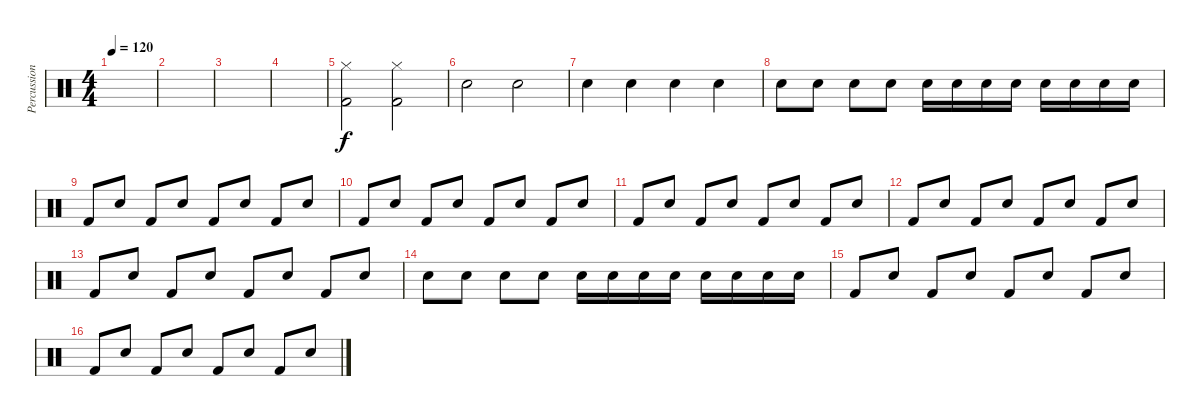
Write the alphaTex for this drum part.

\track ("Percussions" "Percussion") {instrument percussion}
\staff {score}
\articulation defaults
\ts (4 4)
\tempo 120
\clef neutral
\ks c
|
|
|
|
("Kick (hit) 2" "Hi-Hat (closed)").2 ("Kick (hit) 2" "Hi-Hat (closed)").2 |
"Snare (hit) 2".2 "Snare (hit) 2".2 |
"Snare (hit) 2".4 "Snare (hit) 2".4 "Snare (hit) 2".4 "Snare (hit) 2".4 |
"Snare (hit) 2".8 "Snare (hit) 2".8 "Snare (hit) 2".8 "Snare (hit) 2".8 "Snare (hit) 2".16 "Snare (hit) 2".16 "Snare (hit) 2".16 "Snare (hit) 2".16 "Snare (hit) 2".16 "Snare (hit) 2".16 "Snare (hit) 2".16 "Snare (hit) 2".16 |
"Kick (hit) 2".8 "Snare (hit) 2".8 "Kick (hit) 2".8 "Snare (hit) 2".8 "Kick (hit) 2".8 "Snare (hit) 2".8 "Kick (hit) 2".8 "Snare (hit) 2".8 |
"Kick (hit) 2".8 "Snare (hit) 2".8 "Kick (hit) 2".8 "Snare (hit) 2".8 "Kick (hit) 2".8 "Snare (hit) 2".8 "Kick (hit) 2".8 "Snare (hit) 2".8 |
"Kick (hit) 2".8 "Snare (hit) 2".8 "Kick (hit) 2".8 "Snare (hit) 2".8 "Kick (hit) 2".8 "Snare (hit) 2".8 "Kick (hit) 2".8 "Snare (hit) 2".8 |
"Kick (hit) 2".8 "Snare (hit) 2".8 "Kick (hit) 2".8 "Snare (hit) 2".8 "Kick (hit) 2".8 "Snare (hit) 2".8 "Kick (hit) 2".8 "Snare (hit) 2".8 |
"Kick (hit) 2".8 "Snare (hit) 2".8 "Kick (hit) 2".8 "Snare (hit) 2".8 "Kick (hit) 2".8 "Snare (hit) 2".8 "Kick (hit) 2".8 "Snare (hit) 2".8 |
"Snare (hit) 2".8 "Snare (hit) 2".8 "Snare (hit) 2".8 "Snare (hit) 2".8 "Snare (hit) 2".16 "Snare (hit) 2".16 "Snare (hit) 2".16 "Snare (hit) 2".16 "Snare (hit) 2".16 "Snare (hit) 2".16 "Snare (hit) 2".16 "Snare (hit) 2".16 |
"Kick (hit) 2".8 "Snare (hit) 2".8 "Kick (hit) 2".8 "Snare (hit) 2".8 "Kick (hit) 2".8 "Snare (hit) 2".8 "Kick (hit) 2".8 "Snare (hit) 2".8 |
"Kick (hit) 2".8 "Snare (hit) 2".8 "Kick (hit) 2".8 "Snare (hit) 2".8 "Kick (hit) 2".8 "Snare (hit) 2".8 "Kick (hit) 2".8 "Snare (hit) 2".8
